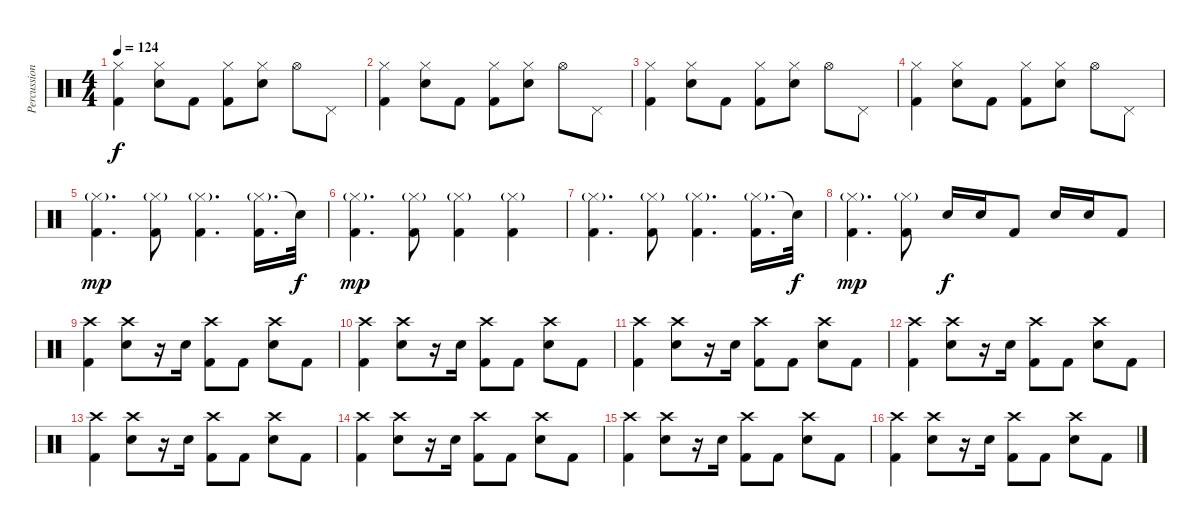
\track ("Percussion" "Percussion") {instrument percussion}
\staff {score}
\articulation defaults
\ts (4 4)
\tempo 124
\clef neutral
\ks c
("Hi-Hat (closed)" "Kick (hit) 2").4{dy f} ("Hi-Hat (closed)" "Electric Snare (hit)").8 "Kick (hit) 2".8 ("Hi-Hat (closed)" "Kick (hit) 2").8 ("Hi-Hat (closed)" "Electric Snare (hit)").8 "Hi-Hat (open)".8 "Pedal Hi-Hat (hit)".8 |
("Hi-Hat (closed)" "Kick (hit) 2").4 ("Hi-Hat (closed)" "Electric Snare (hit)").8 "Kick (hit) 2".8 ("Hi-Hat (closed)" "Kick (hit) 2").8 ("Hi-Hat (closed)" "Electric Snare (hit)").8 "Hi-Hat (open)".8 "Pedal Hi-Hat (hit)".8 |
("Hi-Hat (closed)" "Kick (hit) 2").4 ("Hi-Hat (closed)" "Electric Snare (hit)").8 "Kick (hit) 2".8 ("Hi-Hat (closed)" "Kick (hit) 2").8 ("Hi-Hat (closed)" "Electric Snare (hit)").8 "Hi-Hat (open)".8 "Pedal Hi-Hat (hit)".8 |
("Hi-Hat (closed)" "Kick (hit) 2").4 ("Hi-Hat (closed)" "Electric Snare (hit)").8 "Kick (hit) 2".8 ("Hi-Hat (closed)" "Kick (hit) 2").8 ("Hi-Hat (closed)" "Electric Snare (hit)").8 "Hi-Hat (open)".8 "Pedal Hi-Hat (hit)".8 |
("Hi-Hat (closed)"{g} "Kick (hit) 2").4{d dy mp} ("Hi-Hat (closed)"{g} "Kick (hit) 2").8 ("Hi-Hat (closed)"{g} "Kick (hit) 2").4{d} ("Hi-Hat (closed)"{g} "Kick (hit) 2").16{d} "Snare (hit)"{t}.32{dy f} |
("Hi-Hat (closed)"{g} "Kick (hit) 2").4{d dy mp} ("Hi-Hat (closed)"{g} "Kick (hit) 2").8 ("Hi-Hat (closed)"{g} "Kick (hit) 2").4 ("Hi-Hat (closed)"{g} "Kick (hit) 2").4 |
("Hi-Hat (closed)"{g} "Kick (hit) 2").4{d} ("Hi-Hat (closed)"{g} "Kick (hit) 2").8 ("Hi-Hat (closed)"{g} "Kick (hit) 2").4{d} ("Hi-Hat (closed)"{g} "Kick (hit) 2").16{d} "Snare (hit)"{t}.32{dy f} |
("Hi-Hat (closed)"{g} "Kick (hit) 2").4{d dy mp} ("Hi-Hat (closed)"{g} "Kick (hit) 2").8 "Electric Snare (hit)".16{dy f} "Electric Snare (hit)".16 "Kick (hit) 2".8 "Electric Snare (hit)".16 "Electric Snare (hit)".16 "Kick (hit) 2".8 |
("Crash high (hit)" "Kick (hit) 2").4 ("Crash high (hit)" "Electric Snare (hit)").8 r.16 "Electric Snare (hit)".16 ("Crash high (hit)" "Kick (hit) 2").8 "Kick (hit) 2".8 ("Crash high (hit)" "Electric Snare (hit)").8 "Kick (hit) 2".8 |
("Crash high (hit)" "Kick (hit) 2").4 ("Crash high (hit)" "Electric Snare (hit)").8 r.16 "Electric Snare (hit)".16 ("Crash high (hit)" "Kick (hit) 2").8 "Kick (hit) 2".8 ("Crash high (hit)" "Electric Snare (hit)").8 "Kick (hit) 2".8 |
("Crash high (hit)" "Kick (hit) 2").4 ("Crash high (hit)" "Electric Snare (hit)").8 r.16 "Electric Snare (hit)".16 ("Crash high (hit)" "Kick (hit) 2").8 "Kick (hit) 2".8 ("Crash high (hit)" "Electric Snare (hit)").8 "Kick (hit) 2".8 |
("Crash high (hit)" "Kick (hit) 2").4 ("Crash high (hit)" "Electric Snare (hit)").8 r.16 "Electric Snare (hit)".16 ("Crash high (hit)" "Kick (hit) 2").8 "Kick (hit) 2".8 ("Crash high (hit)" "Electric Snare (hit)").8 "Kick (hit) 2".8 |
("Crash high (hit)" "Kick (hit) 2").4 ("Crash high (hit)" "Electric Snare (hit)").8 r.16 "Electric Snare (hit)".16 ("Crash high (hit)" "Kick (hit) 2").8 "Kick (hit) 2".8 ("Crash high (hit)" "Electric Snare (hit)").8 "Kick (hit) 2".8 |
("Crash high (hit)" "Kick (hit) 2").4 ("Crash high (hit)" "Electric Snare (hit)").8 r.16 "Electric Snare (hit)".16 ("Crash high (hit)" "Kick (hit) 2").8 "Kick (hit) 2".8 ("Crash high (hit)" "Electric Snare (hit)").8 "Kick (hit) 2".8 |
("Crash high (hit)" "Kick (hit) 2").4 ("Crash high (hit)" "Electric Snare (hit)").8 r.16 "Electric Snare (hit)".16 ("Crash high (hit)" "Kick (hit) 2").8 "Kick (hit) 2".8 ("Crash high (hit)" "Electric Snare (hit)").8 "Kick (hit) 2".8 |
("Crash high (hit)" "Kick (hit) 2").4 ("Crash high (hit)" "Electric Snare (hit)").8 r.16 "Electric Snare (hit)".16 ("Crash high (hit)" "Kick (hit) 2").8 "Kick (hit) 2".8 ("Crash high (hit)" "Electric Snare (hit)").8 "Kick (hit) 2".8
